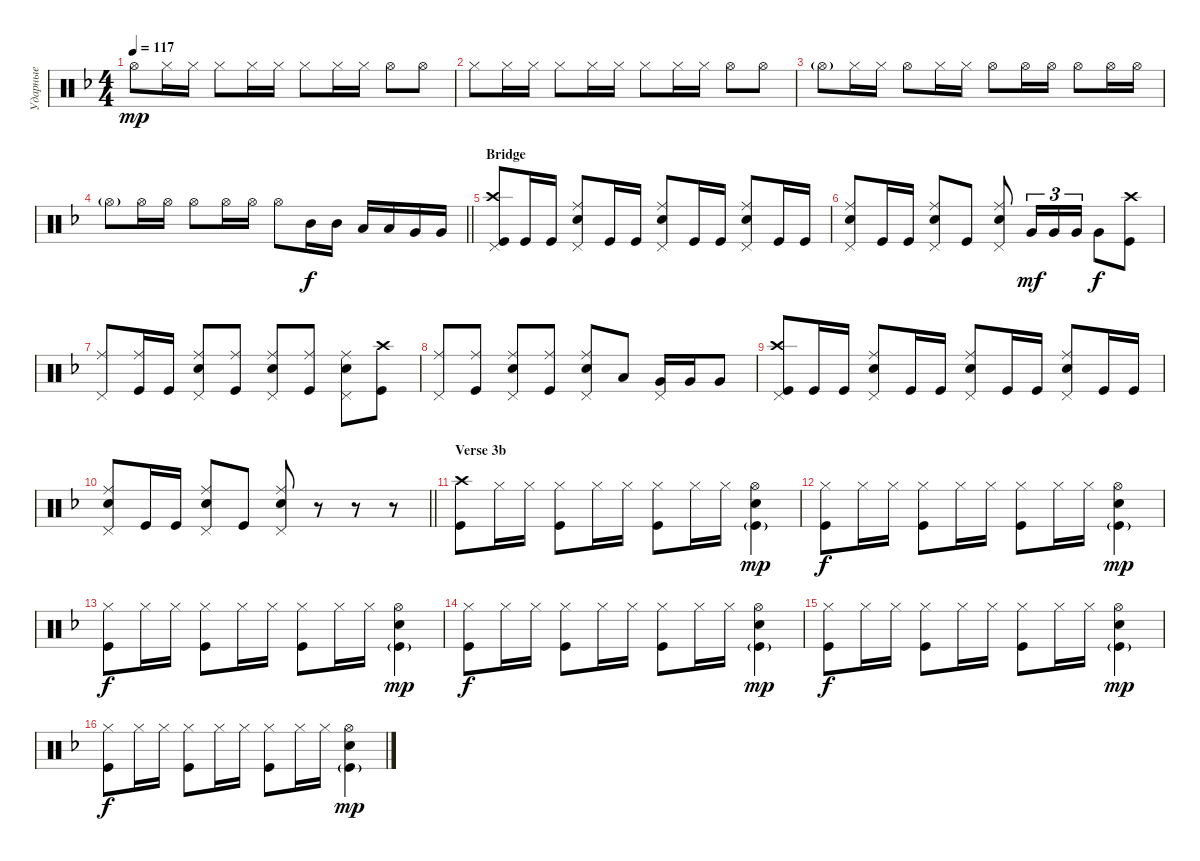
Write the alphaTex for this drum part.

\track ("Ударные" "Ударные") {instrument percussion}
\staff {score}
\articulation defaults
\ts (4 4)
\tempo 117
\clef neutral
\ks dminor "Hi-Hat (open)".8{dy mp} "Hi-Hat (closed)".16 "Hi-Hat (closed)".16 "Hi-Hat (closed)".8 "Hi-Hat (closed)".16 "Hi-Hat (closed)".16 "Hi-Hat (closed)".8 "Hi-Hat (closed)".16 "Hi-Hat (closed)".16 "Hi-Hat (open)".8 "Hi-Hat (open)".8
|
"Hi-Hat (closed)".8 "Hi-Hat (closed)".16 "Hi-Hat (closed)".16 "Hi-Hat (closed)".8 "Hi-Hat (closed)".16 "Hi-Hat (closed)".16 "Hi-Hat (closed)".8 "Hi-Hat (closed)".16 "Hi-Hat (closed)".16 "Hi-Hat (open)".8 "Hi-Hat (open)".8 |
"Hi-Hat (open)"{g}.8 "Hi-Hat (closed)".16 "Hi-Hat (closed)".16 "Hi-Hat (open)".8 "Hi-Hat (closed)".16 "Hi-Hat (closed)".16 "Hi-Hat (open)".8 "Hi-Hat (open)".16 "Hi-Hat (open)".16 "Hi-Hat (open)".8 "Hi-Hat (open)".16 "Hi-Hat (open)".16 |
\barLineRight lightlight "Hi-Hat (open)"{g}.8 "Hi-Hat (open)".16 "Hi-Hat (open)".16 "Hi-Hat (open)".8 "Hi-Hat (open)".16 "Hi-Hat (open)".16 "Hi-Hat (open)".8 "Mid Tom (hit)".16{dy f} "Mid Tom (hit)".16 "Low Tom (hit)".16 "Low Tom (hit)".16 "Very Low Tom (hit)".16 "Very Low Tom (hit)".16
|
\section ("" "Bridge")
("Kick (hit)" "Crash high (hit)" "Pedal Hi-Hat (hit)").8 "Kick (hit)".16 "Kick (hit)".16 ("Snare (hit) 2" "Ride (middle)" "Pedal Hi-Hat (hit)").8 "Kick (hit)".16 "Kick (hit)".16 ("Snare (hit) 2" "Ride (middle)" "Pedal Hi-Hat (hit)").8 "Kick (hit)".16 "Kick (hit)".16 ("Snare (hit) 2" "Ride (middle)" "Pedal Hi-Hat (hit)").8 "Kick (hit)".16 "Kick (hit)".16 |
("Ride (middle)" "Snare (hit) 2" "Pedal Hi-Hat (hit)").8 "Kick (hit)".16 "Kick (hit)".16 ("Snare (hit) 2" "Ride (middle)" "Pedal Hi-Hat (hit)").8 "Kick (hit)".8 ("Snare (hit) 2" "Ride (middle)" "Pedal Hi-Hat (hit)").8 "Very Low Tom (hit)".16{tu (3 2) dy mf} "Very Low Tom (hit)".16{tu (3 2)} "Very Low Tom (hit)".16{tu (3 2)} "Very Low Tom (hit)".8{dy f} ("Kick (hit)" "Crash high (hit)").8 |
("Ride (middle)" "Pedal Hi-Hat (hit)").8 ("Ride (middle)" "Kick (hit)").16 "Kick (hit)".16 ("Ride (middle)" "Snare (hit) 2" "Pedal Hi-Hat (hit)").8 ("Ride (middle)" "Kick (hit)").8 ("Ride (middle)" "Snare (hit) 2" "Pedal Hi-Hat (hit)").8 ("Ride (middle)" "Kick (hit)").8 ("Ride (middle)" "Snare (hit) 2" "Pedal Hi-Hat (hit)").8 ("Kick (hit)" "Crash high (hit)").8 |
("Ride (middle)" "Pedal Hi-Hat (hit)").8 ("Ride (middle)" "Kick (hit)").8 ("Ride (middle)" "Snare (hit) 2" "Pedal Hi-Hat (hit)").8 ("Ride (middle)" "Kick (hit)").8 ("Snare (hit) 2" "Ride (middle)" "Pedal Hi-Hat (hit)").8 "Low Tom (hit)".8 ("Very Low Tom (hit)" "Pedal Hi-Hat (hit)").16 "Very Low Tom (hit)".16 "Very Low Tom (hit)".8 |
("Kick (hit)" "Crash high (hit)" "Pedal Hi-Hat (hit)").8 "Kick (hit)".16 "Kick (hit)".16 ("Snare (hit) 2" "Ride (middle)" "Pedal Hi-Hat (hit)").8 "Kick (hit)".16 "Kick (hit)".16 ("Snare (hit) 2" "Ride (middle)" "Pedal Hi-Hat (hit)").8 "Kick (hit)".16 "Kick (hit)".16 ("Snare (hit) 2" "Ride (middle)" "Pedal Hi-Hat (hit)").8 "Kick (hit)".16 "Kick (hit)".16 |
\barLineRight lightlight
("Ride (middle)" "Snare (hit) 2" "Pedal Hi-Hat (hit)").8 "Kick (hit)".16 "Kick (hit)".16 ("Snare (hit) 2" "Ride (middle)" "Pedal Hi-Hat (hit)").8 "Kick (hit)".8 ("Snare (hit) 2" "Ride (middle)" "Pedal Hi-Hat (hit)").8 r.8 r.8 r.8 |
\section ("" "Verse 3b")
("Kick (hit)" "Crash high (hit)").8 "Hi-Hat (closed)".16 "Hi-Hat (closed)".16 ("Hi-Hat (closed)" "Kick (hit)").8 "Hi-Hat (closed)".16 "Hi-Hat (closed)".16 ("Hi-Hat (closed)" "Kick (hit)").8 "Hi-Hat (closed)".16 "Hi-Hat (closed)".16 ("Hi-Hat (open)" "Snare (hit) 2" "Kick (hit)"{g}).4{dy mp} |
("Hi-Hat (closed)" "Kick (hit)").8{dy f} "Hi-Hat (closed)".16 "Hi-Hat (closed)".16 ("Hi-Hat (closed)" "Kick (hit)").8 "Hi-Hat (closed)".16 "Hi-Hat (closed)".16 ("Hi-Hat (closed)" "Kick (hit)").8 "Hi-Hat (closed)".16 "Hi-Hat (closed)".16 ("Hi-Hat (open)" "Snare (hit) 2" "Kick (hit)"{g}).4{dy mp} |
("Hi-Hat (closed)" "Kick (hit)").8{dy f} "Hi-Hat (closed)".16 "Hi-Hat (closed)".16 ("Hi-Hat (closed)" "Kick (hit)").8 "Hi-Hat (closed)".16 "Hi-Hat (closed)".16 ("Hi-Hat (closed)" "Kick (hit)").8 "Hi-Hat (closed)".16 "Hi-Hat (closed)".16 ("Hi-Hat (open)" "Snare (hit) 2" "Kick (hit)"{g}).4{dy mp} |
("Hi-Hat (closed)" "Kick (hit)").8{dy f} "Hi-Hat (closed)".16 "Hi-Hat (closed)".16 ("Hi-Hat (closed)" "Kick (hit)").8 "Hi-Hat (closed)".16 "Hi-Hat (closed)".16 ("Hi-Hat (closed)" "Kick (hit)").8 "Hi-Hat (closed)".16 "Hi-Hat (closed)".16 ("Hi-Hat (open)" "Snare (hit) 2" "Kick (hit)"{g}).4{dy mp} |
("Hi-Hat (closed)" "Kick (hit)").8{dy f} "Hi-Hat (closed)".16 "Hi-Hat (closed)".16 ("Hi-Hat (closed)" "Kick (hit)").8 "Hi-Hat (closed)".16 "Hi-Hat (closed)".16 ("Hi-Hat (closed)" "Kick (hit)").8 "Hi-Hat (closed)".16 "Hi-Hat (closed)".16 ("Hi-Hat (open)" "Snare (hit) 2" "Kick (hit)"{g}).4{dy mp} |
("Hi-Hat (closed)" "Kick (hit)").8{dy f} "Hi-Hat (closed)".16 "Hi-Hat (closed)".16 ("Hi-Hat (closed)" "Kick (hit)").8 "Hi-Hat (closed)".16 "Hi-Hat (closed)".16 ("Hi-Hat (closed)" "Kick (hit)").8 "Hi-Hat (closed)".16 "Hi-Hat (closed)".16 ("Hi-Hat (open)" "Snare (hit) 2" "Kick (hit)"{g}).4{dy mp}
